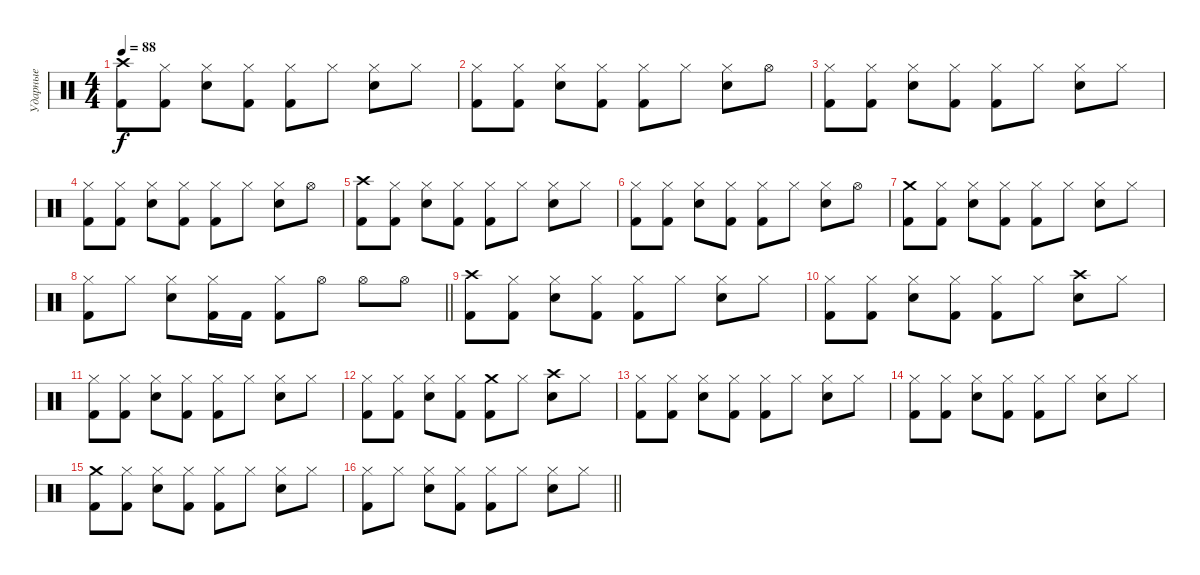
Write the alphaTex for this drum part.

\track ("Ударные" "Ударные") {instrument percussion}
\staff {score}
\articulation defaults
\ts (4 4)
\tempo 88
\clef neutral
\ks c
("Crash high (hit)" "Kick (hit) 2").8{dy f} ("Hi-Hat (closed)" "Kick (hit) 2").8 ("Hi-Hat (closed)" "Snare (hit) 2").8 ("Hi-Hat (closed)" "Kick (hit) 2").8 ("Hi-Hat (closed)" "Kick (hit) 2").8 "Hi-Hat (closed)".8 ("Hi-Hat (closed)" "Snare (hit) 2").8 "Hi-Hat (closed)".8 |
("Hi-Hat (closed)" "Kick (hit) 2").8 ("Hi-Hat (closed)" "Kick (hit) 2").8 ("Hi-Hat (closed)" "Snare (hit) 2").8 ("Hi-Hat (closed)" "Kick (hit) 2").8 ("Hi-Hat (closed)" "Kick (hit) 2").8 "Hi-Hat (closed)".8 ("Hi-Hat (closed)" "Snare (hit) 2").8 "Hi-Hat (open)".8 |
("Hi-Hat (closed)" "Kick (hit) 2").8 ("Hi-Hat (closed)" "Kick (hit) 2").8 ("Hi-Hat (closed)" "Snare (hit) 2").8 ("Hi-Hat (closed)" "Kick (hit) 2").8 ("Hi-Hat (closed)" "Kick (hit) 2").8 "Hi-Hat (closed)".8 ("Hi-Hat (closed)" "Snare (hit) 2").8 "Hi-Hat (closed)".8 |
("Hi-Hat (closed)" "Kick (hit) 2").8 ("Hi-Hat (closed)" "Kick (hit) 2").8 ("Hi-Hat (closed)" "Snare (hit) 2").8 ("Hi-Hat (closed)" "Kick (hit) 2").8 ("Hi-Hat (closed)" "Kick (hit) 2").8 "Hi-Hat (closed)".8 ("Hi-Hat (closed)" "Snare (hit) 2").8 "Hi-Hat (open)".8 |
("Crash high (hit)" "Kick (hit) 2").8 ("Hi-Hat (closed)" "Kick (hit) 2").8 ("Hi-Hat (closed)" "Snare (hit) 2").8 ("Hi-Hat (closed)" "Kick (hit) 2").8 ("Hi-Hat (closed)" "Kick (hit) 2").8 "Hi-Hat (closed)".8 ("Hi-Hat (closed)" "Snare (hit) 2").8 "Hi-Hat (closed)".8 |
("Hi-Hat (closed)" "Kick (hit) 2").8 ("Hi-Hat (closed)" "Kick (hit) 2").8 ("Hi-Hat (closed)" "Snare (hit) 2").8 ("Hi-Hat (closed)" "Kick (hit) 2").8 ("Hi-Hat (closed)" "Kick (hit) 2").8 "Hi-Hat (closed)".8 ("Hi-Hat (closed)" "Snare (hit) 2").8 "Hi-Hat (open)".8 |
("Crash medium (hit)" "Kick (hit) 2").8 ("Hi-Hat (closed)" "Kick (hit) 2").8 ("Hi-Hat (closed)" "Snare (hit) 2").8 ("Hi-Hat (closed)" "Kick (hit) 2").8 ("Hi-Hat (closed)" "Kick (hit) 2").8 "Hi-Hat (closed)".8 ("Hi-Hat (closed)" "Snare (hit) 2").8 "Hi-Hat (closed)".8 |
\barLineRight lightlight
("Hi-Hat (closed)" "Kick (hit) 2").8 "Hi-Hat (closed)".8 ("Hi-Hat (closed)" "Snare (hit) 2").8 ("Hi-Hat (closed)" "Kick (hit) 2").16 "Kick (hit) 2".16 ("Hi-Hat (closed)" "Kick (hit) 2").8 "Hi-Hat (open)".8 "Hi-Hat (open)".8 "Hi-Hat (open)".8 |
("Crash high (hit)" "Kick (hit) 2").8 ("Hi-Hat (closed)" "Kick (hit) 2").8 ("Hi-Hat (closed)" "Snare (hit) 2").8 ("Hi-Hat (closed)" "Kick (hit) 2").8 ("Hi-Hat (closed)" "Kick (hit) 2").8 "Hi-Hat (closed)".8 ("Hi-Hat (closed)" "Snare (hit) 2").8 "Hi-Hat (closed)".8 |
("Hi-Hat (closed)" "Kick (hit) 2").8 ("Hi-Hat (closed)" "Kick (hit) 2").8 ("Hi-Hat (closed)" "Snare (hit) 2").8 ("Hi-Hat (closed)" "Kick (hit) 2").8 ("Hi-Hat (closed)" "Kick (hit) 2").8 "Hi-Hat (closed)".8 ("Crash high (hit)" "Snare (hit) 2").8 "Hi-Hat (closed)".8 |
("Hi-Hat (closed)" "Kick (hit) 2").8 ("Hi-Hat (closed)" "Kick (hit) 2").8 ("Hi-Hat (closed)" "Snare (hit) 2").8 ("Hi-Hat (closed)" "Kick (hit) 2").8 ("Hi-Hat (closed)" "Kick (hit) 2").8 "Hi-Hat (closed)".8 ("Hi-Hat (closed)" "Snare (hit) 2").8 "Hi-Hat (closed)".8 |
("Hi-Hat (closed)" "Kick (hit) 2").8 ("Hi-Hat (closed)" "Kick (hit) 2").8 ("Hi-Hat (closed)" "Snare (hit) 2").8 ("Hi-Hat (closed)" "Kick (hit) 2").8 ("Crash medium (hit)" "Kick (hit) 2").8 "Hi-Hat (closed)".8 ("Crash high (hit)" "Snare (hit) 2").8 "Hi-Hat (closed)".8 |
("Hi-Hat (closed)" "Kick (hit) 2").8 ("Hi-Hat (closed)" "Kick (hit) 2").8 ("Hi-Hat (closed)" "Snare (hit) 2").8 ("Hi-Hat (closed)" "Kick (hit) 2").8 ("Hi-Hat (closed)" "Kick (hit) 2").8 "Hi-Hat (closed)".8 ("Hi-Hat (closed)" "Snare (hit) 2").8 "Hi-Hat (closed)".8 |
("Hi-Hat (closed)" "Kick (hit) 2").8 ("Hi-Hat (closed)" "Kick (hit) 2").8 ("Hi-Hat (closed)" "Snare (hit) 2").8 ("Hi-Hat (closed)" "Kick (hit) 2").8 ("Hi-Hat (closed)" "Kick (hit) 2").8 "Hi-Hat (closed)".8 ("Hi-Hat (closed)" "Snare (hit) 2").8 "Hi-Hat (closed)".8 |
("Crash medium (hit)" "Kick (hit) 2").8 ("Hi-Hat (closed)" "Kick (hit) 2").8 ("Hi-Hat (closed)" "Snare (hit) 2").8 ("Hi-Hat (closed)" "Kick (hit) 2").8 ("Hi-Hat (closed)" "Kick (hit) 2").8 "Hi-Hat (closed)".8 ("Hi-Hat (closed)" "Snare (hit) 2").8 "Hi-Hat (closed)".8 |
\barLineRight lightlight
("Hi-Hat (closed)" "Kick (hit) 2").8 "Hi-Hat (closed)".8 ("Hi-Hat (closed)" "Snare (hit) 2").8 ("Hi-Hat (closed)" "Kick (hit) 2").8 ("Hi-Hat (closed)" "Kick (hit) 2").8 "Hi-Hat (closed)".8 ("Hi-Hat (closed)" "Snare (hit) 2").8 "Hi-Hat (closed)".8
